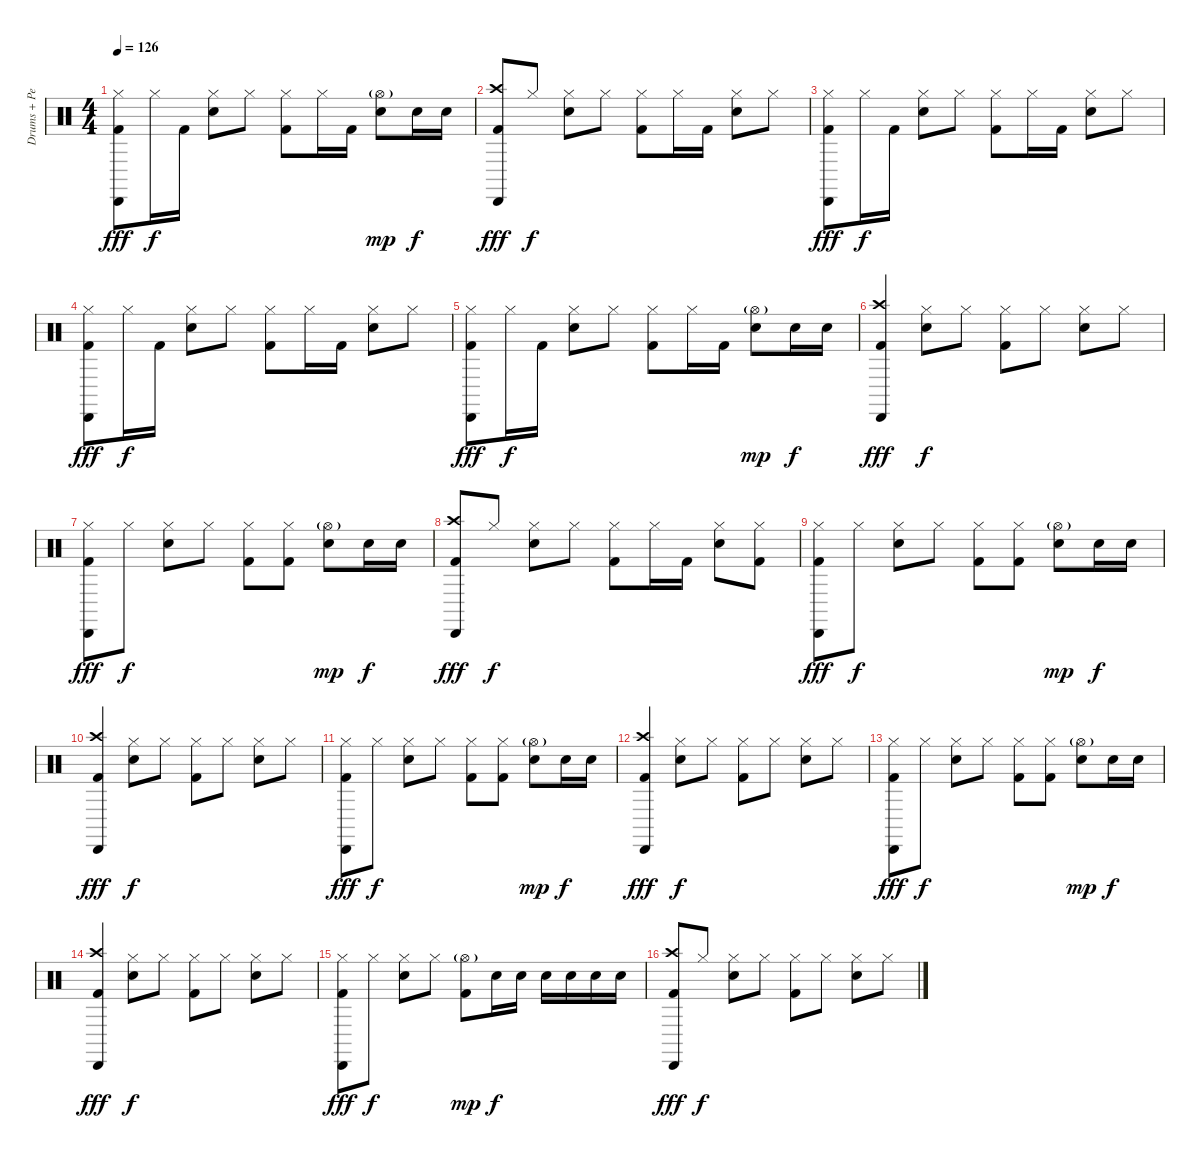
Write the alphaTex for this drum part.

\track ("Drums + Percussions" "Drums + Pe") {instrument percussion}
\staff {score}
\articulation defaults
\ts (4 4)
\tempo 126
\clef neutral
\ks c
("Hi-Hat (closed)" "Cabasa (hit)" "Kick (hit) 2").8{dy fff} "Hi-Hat (closed)".16{dy f} "Kick (hit) 2".16 ("Hi-Hat (closed)" "Electric Snare (hit)").8 "Hi-Hat (closed)".8 ("Hi-Hat (closed)" "Kick (hit) 2").8 "Hi-Hat (closed)".16 "Kick (hit) 2".16 ("Hi-Hat (open)"{g} "Electric Snare (hit)").8{dy mp} "Electric Snare (hit)".16{dy f} "Electric Snare (hit)".16 |
("Crash high (hit)" "Cabasa (hit)" "Kick (hit) 2").8{dy fff} "Hi-Hat (closed)".8{dy f} ("Hi-Hat (closed)" "Electric Snare (hit)").8 "Hi-Hat (closed)".8 ("Hi-Hat (closed)" "Kick (hit) 2").8 "Hi-Hat (closed)".16 "Kick (hit) 2".16 ("Hi-Hat (closed)" "Electric Snare (hit)").8 "Hi-Hat (closed)".8 |
("Hi-Hat (closed)" "Cabasa (hit)" "Kick (hit) 2").8{dy fff} "Hi-Hat (closed)".16{dy f} "Kick (hit) 2".16 ("Hi-Hat (closed)" "Electric Snare (hit)").8 "Hi-Hat (closed)".8 ("Hi-Hat (closed)" "Kick (hit) 2").8 "Hi-Hat (closed)".16 "Kick (hit) 2".16 ("Hi-Hat (closed)" "Electric Snare (hit)").8 "Hi-Hat (closed)".8 |
("Hi-Hat (closed)" "Cabasa (hit)" "Kick (hit) 2").8{dy fff} "Hi-Hat (closed)".16{dy f} "Kick (hit) 2".16 ("Hi-Hat (closed)" "Electric Snare (hit)").8 "Hi-Hat (closed)".8 ("Hi-Hat (closed)" "Kick (hit) 2").8 "Hi-Hat (closed)".16 "Kick (hit) 2".16 ("Hi-Hat (closed)" "Electric Snare (hit)").8 "Hi-Hat (closed)".8 |
("Hi-Hat (closed)" "Cabasa (hit)" "Kick (hit) 2").8{dy fff} "Hi-Hat (closed)".16{dy f} "Kick (hit) 2".16 ("Hi-Hat (closed)" "Electric Snare (hit)").8 "Hi-Hat (closed)".8 ("Hi-Hat (closed)" "Kick (hit) 2").8 "Hi-Hat (closed)".16 "Kick (hit) 2".16 ("Hi-Hat (open)"{g} "Electric Snare (hit)").8{dy mp} "Electric Snare (hit)".16{dy f} "Electric Snare (hit)".16 |
("Crash high (hit)" "Cabasa (hit)" "Kick (hit) 2").4{dy fff} ("Hi-Hat (closed)" "Electric Snare (hit)").8{dy f} "Hi-Hat (closed)".8 ("Hi-Hat (closed)" "Kick (hit) 2").8 "Hi-Hat (closed)".8 ("Hi-Hat (closed)" "Electric Snare (hit)").8 "Hi-Hat (closed)".8 |
("Hi-Hat (closed)" "Cabasa (hit)" "Kick (hit) 2").8{dy fff} "Hi-Hat (closed)".8{dy f} ("Hi-Hat (closed)" "Electric Snare (hit)").8 "Hi-Hat (closed)".8 ("Hi-Hat (closed)" "Kick (hit) 2").8 ("Hi-Hat (closed)" "Kick (hit) 2").8 ("Hi-Hat (open)"{g} "Electric Snare (hit)").8{dy mp} "Electric Snare (hit)".16{dy f} "Electric Snare (hit)".16 |
("Crash high (hit)" "Cabasa (hit)" "Kick (hit) 2").8{dy fff} "Hi-Hat (closed)".8{dy f} ("Hi-Hat (closed)" "Electric Snare (hit)").8 "Hi-Hat (closed)".8 ("Hi-Hat (closed)" "Kick (hit) 2").8 "Hi-Hat (closed)".16 "Kick (hit) 2".16 ("Hi-Hat (closed)" "Electric Snare (hit)").8 ("Hi-Hat (closed)" "Kick (hit) 2").8 |
("Hi-Hat (closed)" "Cabasa (hit)" "Kick (hit) 2").8{dy fff} "Hi-Hat (closed)".8{dy f} ("Hi-Hat (closed)" "Electric Snare (hit)").8 "Hi-Hat (closed)".8 ("Hi-Hat (closed)" "Kick (hit) 2").8 ("Hi-Hat (closed)" "Kick (hit) 2").8 ("Hi-Hat (open)"{g} "Electric Snare (hit)").8{dy mp} "Electric Snare (hit)".16{dy f} "Electric Snare (hit)".16 |
("Crash high (hit)" "Cabasa (hit)" "Kick (hit) 2").4{dy fff} ("Hi-Hat (closed)" "Electric Snare (hit)").8{dy f} "Hi-Hat (closed)".8 ("Hi-Hat (closed)" "Kick (hit) 2").8 "Hi-Hat (closed)".8 ("Hi-Hat (closed)" "Electric Snare (hit)").8 "Hi-Hat (closed)".8 |
("Hi-Hat (closed)" "Cabasa (hit)" "Kick (hit) 2").8{dy fff} "Hi-Hat (closed)".8{dy f} ("Hi-Hat (closed)" "Electric Snare (hit)").8 "Hi-Hat (closed)".8 ("Hi-Hat (closed)" "Kick (hit) 2").8 ("Hi-Hat (closed)" "Kick (hit) 2").8 ("Hi-Hat (open)"{g} "Electric Snare (hit)").8{dy mp} "Electric Snare (hit)".16{dy f} "Electric Snare (hit)".16 |
("Crash high (hit)" "Cabasa (hit)" "Kick (hit) 2").4{dy fff} ("Hi-Hat (closed)" "Electric Snare (hit)").8{dy f} "Hi-Hat (closed)".8 ("Hi-Hat (closed)" "Kick (hit) 2").8 "Hi-Hat (closed)".8 ("Hi-Hat (closed)" "Electric Snare (hit)").8 "Hi-Hat (closed)".8 |
("Hi-Hat (closed)" "Cabasa (hit)" "Kick (hit) 2").8{dy fff} "Hi-Hat (closed)".8{dy f} ("Hi-Hat (closed)" "Electric Snare (hit)").8 "Hi-Hat (closed)".8 ("Hi-Hat (closed)" "Kick (hit) 2").8 ("Hi-Hat (closed)" "Kick (hit) 2").8 ("Hi-Hat (open)"{g} "Electric Snare (hit)").8{dy mp} "Electric Snare (hit)".16{dy f} "Electric Snare (hit)".16 |
("Crash high (hit)" "Cabasa (hit)" "Kick (hit) 2").4{dy fff} ("Hi-Hat (closed)" "Electric Snare (hit)").8{dy f} "Hi-Hat (closed)".8 ("Hi-Hat (closed)" "Kick (hit) 2").8 "Hi-Hat (closed)".8 ("Hi-Hat (closed)" "Electric Snare (hit)").8 "Hi-Hat (closed)".8 |
("Hi-Hat (closed)" "Cabasa (hit)" "Kick (hit) 2").8{dy fff} "Hi-Hat (closed)".8{dy f} ("Hi-Hat (closed)" "Electric Snare (hit)").8 "Hi-Hat (closed)".8 ("Hi-Hat (open)"{g} "Kick (hit) 2").8{dy mp} "Electric Snare (hit)".16{dy f} "Electric Snare (hit)".16 "Electric Snare (hit)".16 "Electric Snare (hit)".16 "Electric Snare (hit)".16 "Electric Snare (hit)".16 |
("Crash high (hit)" "Cabasa (hit)" "Kick (hit) 2").8{dy fff} "Hi-Hat (closed)".8{dy f} ("Hi-Hat (closed)" "Electric Snare (hit)").8 "Hi-Hat (closed)".8 ("Hi-Hat (closed)" "Kick (hit) 2").8 "Hi-Hat (closed)".8 ("Hi-Hat (closed)" "Electric Snare (hit)").8 "Hi-Hat (closed)".8
